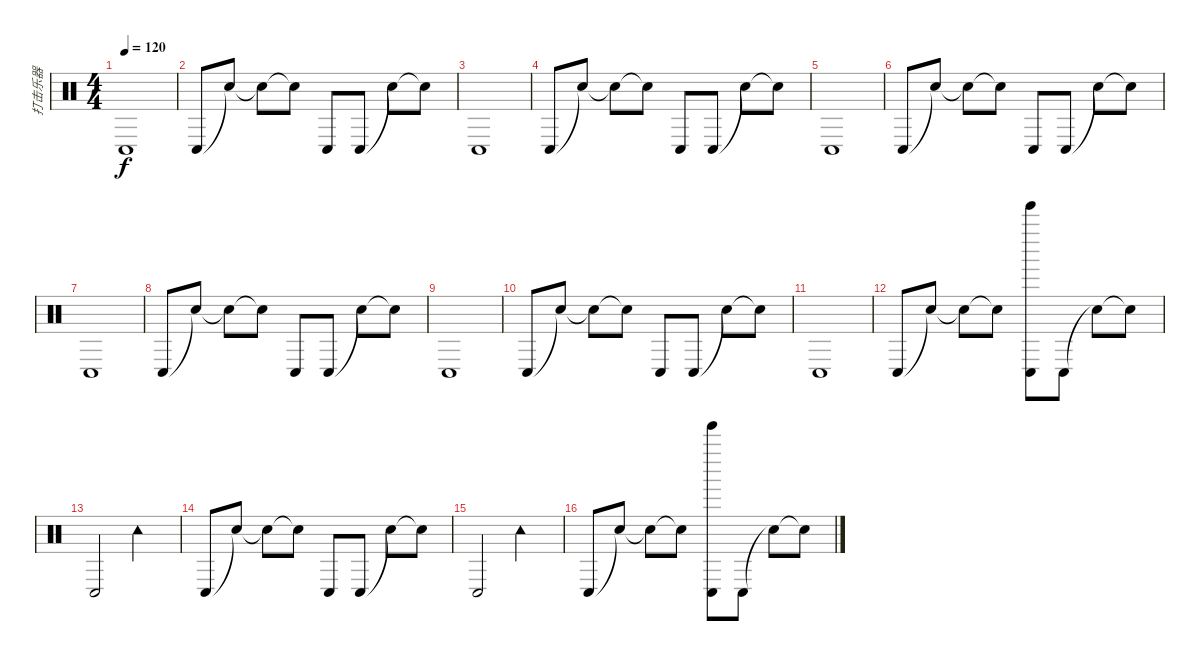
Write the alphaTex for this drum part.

\track ("打击乐器" "打击乐器") {instrument percussion}
\staff {score}
\articulation defaults
\ts (4 4)
\tempo 120
\clef neutral
\ks c "Conga low (hit)".1{dy f}
|
"Conga low (hit)".8 "Snare (hit)"{t}.8 "Snare (hit)"{t}.8 "Snare (hit)"{t}.8 "Conga low (hit)".8 "Conga low (hit)".8 "Snare (hit)"{t}.8 "Snare (hit)"{t}.8 |
"Conga low (hit)".1 |
"Conga low (hit)".8 "Snare (hit)"{t}.8 "Snare (hit)"{t}.8 "Snare (hit)"{t}.8 "Conga low (hit)".8 "Conga low (hit)".8 "Snare (hit)"{t}.8 "Snare (hit)"{t}.8 |
"Conga low (hit)".1 |
"Conga low (hit)".8 "Snare (hit)"{t}.8 "Snare (hit)"{t}.8 "Snare (hit)"{t}.8 "Conga low (hit)".8 "Conga low (hit)".8 "Snare (hit)"{t}.8 "Snare (hit)"{t}.8 |
"Conga low (hit)".1 |
"Conga low (hit)".8 "Snare (hit)"{t}.8 "Snare (hit)"{t}.8 "Snare (hit)"{t}.8 "Conga low (hit)".8 "Conga low (hit)".8 "Snare (hit)"{t}.8 "Snare (hit)"{t}.8 |
"Conga low (hit)".1 |
"Conga low (hit)".8 "Snare (hit)"{t}.8 "Snare (hit)"{t}.8 "Snare (hit)"{t}.8 "Conga low (hit)".8 "Conga low (hit)".8 "Snare (hit)"{t}.8 "Snare (hit)"{t}.8 |
"Conga low (hit)".1 |
"Conga low (hit)".8 "Snare (hit)"{t}.8 "Snare (hit)"{t}.8 "Snare (hit)"{t}.8 ("Tinkle Bell (hit)" "Conga low (hit)").8 "Conga low (hit)".8 "Snare (hit)"{t}.8 "Snare (hit)"{t}.8 |
"Conga low (hit)".2 "Tambourine (hit)".2 |
"Conga low (hit)".8 "Snare (hit)"{t}.8 "Snare (hit)"{t}.8 "Snare (hit)"{t}.8 "Conga low (hit)".8 "Conga low (hit)".8 "Snare (hit)"{t}.8 "Snare (hit)"{t}.8 |
"Conga low (hit)".2 "Tambourine (hit)".2 |
"Conga low (hit)".8 "Snare (hit)"{t}.8 "Snare (hit)"{t}.8 "Snare (hit)"{t}.8 ("Tinkle Bell (hit)" "Conga low (hit)").8 "Conga low (hit)".8 "Snare (hit)"{t}.8 "Snare (hit)"{t}.8
